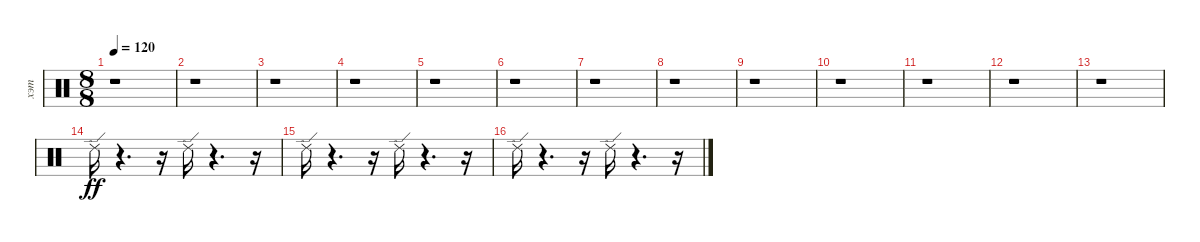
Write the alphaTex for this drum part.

\track ("хэт" "хэт") {instrument percussion}
\staff {score}
\articulation defaults
\ts (8 8)
\tempo 120
\clef neutral
\ks c
r.1{dy ff} |
r.1 |
r.1 |
r.1 |
r.1 |
r.1 |
r.1 |
r.1 |
r.1 |
r.1 |
r.1 |
r.1 |
r.1 |
"Ride (edge) 2".16 r.4{d} r.16 "Ride (edge) 2".16 r.4{d} r.16 |
"Ride (edge) 2".16 r.4{d} r.16 "Ride (edge) 2".16 r.4{d} r.16 |
"Ride (edge) 2".16 r.4{d} r.16 "Ride (edge) 2".16 r.4{d} r.16
